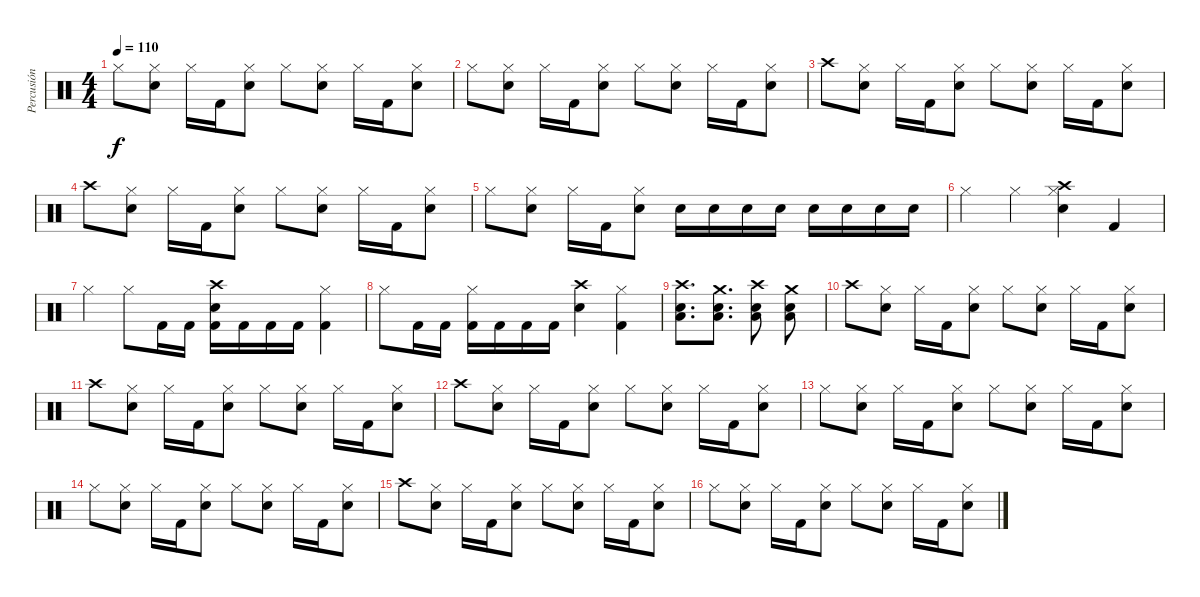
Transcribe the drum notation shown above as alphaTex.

\track ("Percusión" "Percusión") {instrument percussion}
\staff {score}
\articulation defaults
\ts (4 4)
\tempo 110
\clef neutral
\ks c "Hi-Hat (closed)".8{dy f}
("Hi-Hat (closed)" "Snare (hit) 2").8 "Hi-Hat (closed)".16 "Kick (hit) 2".16 ("Hi-Hat (closed)" "Snare (hit) 2").8 "Hi-Hat (closed)".8 ("Hi-Hat (closed)" "Snare (hit) 2").8 "Hi-Hat (closed)".16 "Kick (hit) 2".16 ("Hi-Hat (closed)" "Snare (hit) 2").8 |
"Hi-Hat (closed)".8 ("Hi-Hat (closed)" "Snare (hit) 2").8 "Hi-Hat (closed)".16 "Kick (hit) 2".16 ("Hi-Hat (closed)" "Snare (hit) 2").8 "Hi-Hat (closed)".8 ("Hi-Hat (closed)" "Snare (hit) 2").8 "Hi-Hat (closed)".16 "Kick (hit) 2".16 ("Hi-Hat (closed)" "Snare (hit) 2").8 |
"Crash high (hit)".8 ("Hi-Hat (closed)" "Snare (hit) 2").8 "Hi-Hat (closed)".16 "Kick (hit) 2".16 ("Hi-Hat (closed)" "Snare (hit) 2").8 "Hi-Hat (closed)".8 ("Hi-Hat (closed)" "Snare (hit) 2").8 "Hi-Hat (closed)".16 "Kick (hit) 2".16 ("Hi-Hat (closed)" "Snare (hit) 2").8 |
"Crash high (hit)".8 ("Hi-Hat (closed)" "Snare (hit) 2").8 "Hi-Hat (closed)".16 "Kick (hit) 2".16 ("Hi-Hat (closed)" "Snare (hit) 2").8 "Hi-Hat (closed)".8 ("Hi-Hat (closed)" "Snare (hit) 2").8 "Hi-Hat (closed)".16 "Kick (hit) 2".16 ("Hi-Hat (closed)" "Snare (hit) 2").8 |
"Hi-Hat (closed)".8 ("Hi-Hat (closed)" "Snare (hit) 2").8 "Hi-Hat (closed)".16 "Kick (hit) 2".16 ("Hi-Hat (closed)" "Snare (hit) 2").8 "Snare (hit) 2".16 "Snare (hit) 2".16 "Snare (hit) 2".16 "Snare (hit) 2".16 "Snare (hit) 2".16 "Snare (hit) 2".16 "Snare (hit) 2".16 "Snare (hit) 2".16 |
"Hi-Hat (closed)".4 "Hi-Hat (closed)".4 ("Hi-Hat (closed)" "Crash high (hit)" "Snare (hit) 2").4 "Kick (hit) 2".4 |
"Hi-Hat (closed)".4 "Hi-Hat (closed)".8 "Kick (hit) 2".16 "Kick (hit) 2".16 ("Crash high (hit)" "Snare (hit) 2" "Kick (hit) 2").16 "Kick (hit) 2".16 "Kick (hit) 2".16 "Kick (hit) 2".16 ("Hi-Hat (closed)" "Kick (hit) 2").4 |
"Hi-Hat (closed)".8 "Kick (hit) 2".16 "Kick (hit) 2".16 ("Hi-Hat (closed)" "Kick (hit) 2").16 "Kick (hit) 2".16 "Kick (hit) 2".16 "Kick (hit) 2".16 ("Crash high (hit)" "Snare (hit) 2").4 ("Hi-Hat (closed)" "Kick (hit) 2").4 |
("Snare (hit) 2" "Low Floor Tom (hit)" "Crash high (hit)").8{d} ("Snare (hit) 2" "Low Floor Tom (hit)" "Crash medium (hit)").8{d} ("Snare (hit) 2" "Low Floor Tom (hit)" "Crash high (hit)").8 ("Snare (hit) 2" "Low Floor Tom (hit)" "Crash medium (hit)").8 |
"Crash high (hit)".8 ("Hi-Hat (closed)" "Snare (hit) 2").8 "Hi-Hat (closed)".16 "Kick (hit) 2".16 ("Hi-Hat (closed)" "Snare (hit) 2").8 "Hi-Hat (closed)".8 ("Hi-Hat (closed)" "Snare (hit) 2").8 "Hi-Hat (closed)".16 "Kick (hit) 2".16 ("Hi-Hat (closed)" "Snare (hit) 2").8 |
"Crash high (hit)".8 ("Hi-Hat (closed)" "Snare (hit) 2").8 "Hi-Hat (closed)".16 "Kick (hit) 2".16 ("Hi-Hat (closed)" "Snare (hit) 2").8 "Hi-Hat (closed)".8 ("Hi-Hat (closed)" "Snare (hit) 2").8 "Hi-Hat (closed)".16 "Kick (hit) 2".16 ("Hi-Hat (closed)" "Snare (hit) 2").8 |
"Crash high (hit)".8 ("Hi-Hat (closed)" "Snare (hit) 2").8 "Hi-Hat (closed)".16 "Kick (hit) 2".16 ("Hi-Hat (closed)" "Snare (hit) 2").8 "Hi-Hat (closed)".8 ("Hi-Hat (closed)" "Snare (hit) 2").8 "Hi-Hat (closed)".16 "Kick (hit) 2".16 ("Hi-Hat (closed)" "Snare (hit) 2").8 |
"Hi-Hat (closed)".8 ("Hi-Hat (closed)" "Snare (hit) 2").8 "Hi-Hat (closed)".16 "Kick (hit) 2".16 ("Hi-Hat (closed)" "Snare (hit) 2").8 "Hi-Hat (closed)".8 ("Hi-Hat (closed)" "Snare (hit) 2").8 "Hi-Hat (closed)".16 "Kick (hit) 2".16 ("Hi-Hat (closed)" "Snare (hit) 2").8 |
"Hi-Hat (closed)".8 ("Hi-Hat (closed)" "Snare (hit) 2").8 "Hi-Hat (closed)".16 "Kick (hit) 2".16 ("Hi-Hat (closed)" "Snare (hit) 2").8 "Hi-Hat (closed)".8 ("Hi-Hat (closed)" "Snare (hit) 2").8 "Hi-Hat (closed)".16 "Kick (hit) 2".16 ("Hi-Hat (closed)" "Snare (hit) 2").8 |
"Crash high (hit)".8 ("Hi-Hat (closed)" "Snare (hit) 2").8 "Hi-Hat (closed)".16 "Kick (hit) 2".16 ("Hi-Hat (closed)" "Snare (hit) 2").8 "Hi-Hat (closed)".8 ("Hi-Hat (closed)" "Snare (hit) 2").8 "Hi-Hat (closed)".16 "Kick (hit) 2".16 ("Hi-Hat (closed)" "Snare (hit) 2").8 |
"Hi-Hat (closed)".8 ("Hi-Hat (closed)" "Snare (hit) 2").8 "Hi-Hat (closed)".16 "Kick (hit) 2".16 ("Hi-Hat (closed)" "Snare (hit) 2").8 "Hi-Hat (closed)".8 ("Hi-Hat (closed)" "Snare (hit) 2").8 "Hi-Hat (closed)".16 "Kick (hit) 2".16 ("Hi-Hat (closed)" "Snare (hit) 2").8
